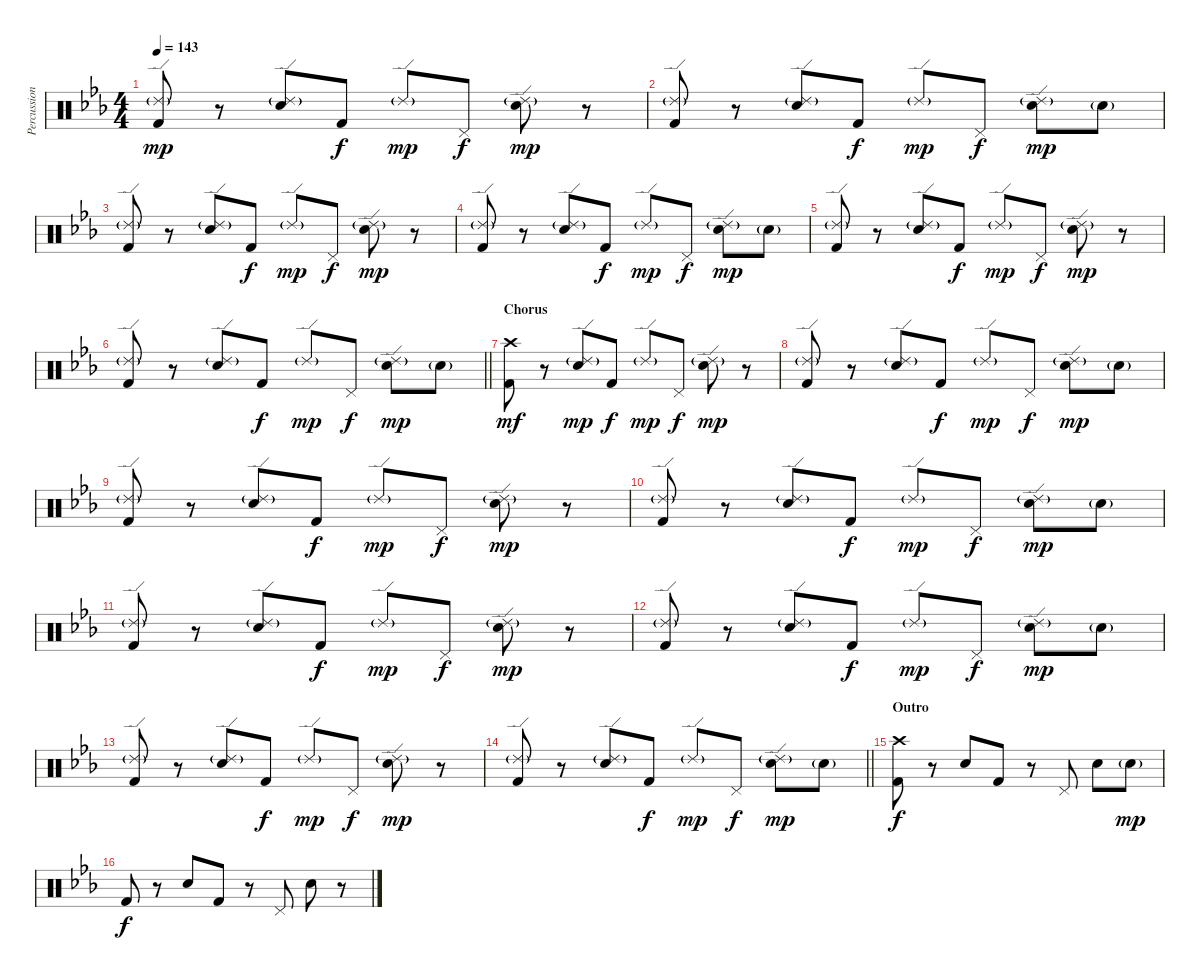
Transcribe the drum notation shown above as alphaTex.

\track ("Percussion" "Percussion") {instrument percussion}
\staff {score}
\articulation defaults
\ts (4 4)
\tempo 143
\clef neutral
\ks cminor
("Ride (edge) 2"{g} "Kick (hit) 2").8{dy mp} r.8 ("Ride (edge) 2"{g} "Electric Snare (hit)").8 "Kick (hit) 2".8{dy f} "Ride (edge) 2"{g}.8{dy mp} "Pedal Hi-Hat (hit)".8{dy f} ("Ride (edge) 2"{g} "Electric Snare (hit)").8{dy mp} r.8 |
("Ride (edge) 2"{g} "Kick (hit) 2").8 r.8 ("Ride (edge) 2"{g} "Electric Snare (hit)").8 "Kick (hit) 2".8{dy f} "Ride (edge) 2"{g}.8{dy mp} "Pedal Hi-Hat (hit)".8{dy f} ("Ride (edge) 2"{g} "Electric Snare (hit)").8{dy mp} "Electric Snare (hit)"{g}.8 |
("Ride (edge) 2"{g} "Kick (hit) 2").8 r.8 ("Ride (edge) 2"{g} "Electric Snare (hit)").8 "Kick (hit) 2".8{dy f} "Ride (edge) 2"{g}.8{dy mp} "Pedal Hi-Hat (hit)".8{dy f} ("Ride (edge) 2"{g} "Electric Snare (hit)").8{dy mp} r.8 |
("Ride (edge) 2"{g} "Kick (hit) 2").8 r.8 ("Ride (edge) 2"{g} "Electric Snare (hit)").8 "Kick (hit) 2".8{dy f} "Ride (edge) 2"{g}.8{dy mp} "Pedal Hi-Hat (hit)".8{dy f} ("Ride (edge) 2"{g} "Electric Snare (hit)").8{dy mp} "Electric Snare (hit)"{g}.8 |
("Ride (edge) 2"{g} "Kick (hit) 2").8 r.8 ("Ride (edge) 2"{g} "Electric Snare (hit)").8 "Kick (hit) 2".8{dy f} "Ride (edge) 2"{g}.8{dy mp} "Pedal Hi-Hat (hit)".8{dy f} ("Ride (edge) 2"{g} "Electric Snare (hit)").8{dy mp} r.8 |
\barLineRight lightlight
("Ride (edge) 2"{g} "Kick (hit) 2").8 r.8 ("Ride (edge) 2"{g} "Electric Snare (hit)").8 "Kick (hit) 2".8{dy f} "Ride (edge) 2"{g}.8{dy mp} "Pedal Hi-Hat (hit)".8{dy f} ("Ride (edge) 2"{g} "Electric Snare (hit)").8{dy mp} "Electric Snare (hit)"{g}.8 |
\section ("" "Chorus")
("Crash high (hit)" "Kick (hit) 2").8{dy mf} r.8 ("Ride (edge) 2"{g} "Electric Snare (hit)").8{dy mp} "Kick (hit) 2".8{dy f} "Ride (edge) 2"{g}.8{dy mp} "Pedal Hi-Hat (hit)".8{dy f} ("Ride (edge) 2"{g} "Electric Snare (hit)").8{dy mp} r.8 |
("Ride (edge) 2"{g} "Kick (hit) 2").8 r.8 ("Ride (edge) 2"{g} "Electric Snare (hit)").8 "Kick (hit) 2".8{dy f} "Ride (edge) 2"{g}.8{dy mp} "Pedal Hi-Hat (hit)".8{dy f} ("Ride (edge) 2"{g} "Electric Snare (hit)").8{dy mp} "Electric Snare (hit)"{g}.8 |
("Ride (edge) 2"{g} "Kick (hit) 2").8 r.8 ("Ride (edge) 2"{g} "Electric Snare (hit)").8 "Kick (hit) 2".8{dy f} "Ride (edge) 2"{g}.8{dy mp} "Pedal Hi-Hat (hit)".8{dy f} ("Ride (edge) 2"{g} "Electric Snare (hit)").8{dy mp} r.8 |
("Ride (edge) 2"{g} "Kick (hit) 2").8 r.8 ("Ride (edge) 2"{g} "Electric Snare (hit)").8 "Kick (hit) 2".8{dy f} "Ride (edge) 2"{g}.8{dy mp} "Pedal Hi-Hat (hit)".8{dy f} ("Ride (edge) 2"{g} "Electric Snare (hit)").8{dy mp} "Electric Snare (hit)"{g}.8 |
("Ride (edge) 2"{g} "Kick (hit) 2").8 r.8 ("Ride (edge) 2"{g} "Electric Snare (hit)").8 "Kick (hit) 2".8{dy f} "Ride (edge) 2"{g}.8{dy mp} "Pedal Hi-Hat (hit)".8{dy f} ("Ride (edge) 2"{g} "Electric Snare (hit)").8{dy mp} r.8 |
("Ride (edge) 2"{g} "Kick (hit) 2").8 r.8 ("Ride (edge) 2"{g} "Electric Snare (hit)").8 "Kick (hit) 2".8{dy f} "Ride (edge) 2"{g}.8{dy mp} "Pedal Hi-Hat (hit)".8{dy f} ("Ride (edge) 2"{g} "Electric Snare (hit)").8{dy mp} "Electric Snare (hit)"{g}.8 |
("Ride (edge) 2"{g} "Kick (hit) 2").8 r.8 ("Ride (edge) 2"{g} "Electric Snare (hit)").8 "Kick (hit) 2".8{dy f} "Ride (edge) 2"{g}.8{dy mp} "Pedal Hi-Hat (hit)".8{dy f} ("Ride (edge) 2"{g} "Electric Snare (hit)").8{dy mp} r.8 |
\barLineRight lightlight
("Ride (edge) 2"{g} "Kick (hit) 2").8 r.8 ("Ride (edge) 2"{g} "Electric Snare (hit)").8 "Kick (hit) 2".8{dy f} "Ride (edge) 2"{g}.8{dy mp} "Pedal Hi-Hat (hit)".8{dy f} ("Ride (edge) 2"{g} "Electric Snare (hit)").8{dy mp} "Electric Snare (hit)"{g}.8 |
\section ("" "Outro")
("Crash high (hit)" "Kick (hit) 2").8{dy f} r.8 "Electric Snare (hit)".8 "Kick (hit) 2".8 r.8 "Pedal Hi-Hat (hit)".8 "Electric Snare (hit)".8 "Electric Snare (hit)"{g}.8{dy mp} |
"Kick (hit) 2".8{dy f} r.8 "Electric Snare (hit)".8 "Kick (hit) 2".8 r.8 "Pedal Hi-Hat (hit)".8 "Electric Snare (hit)".8 r.8
